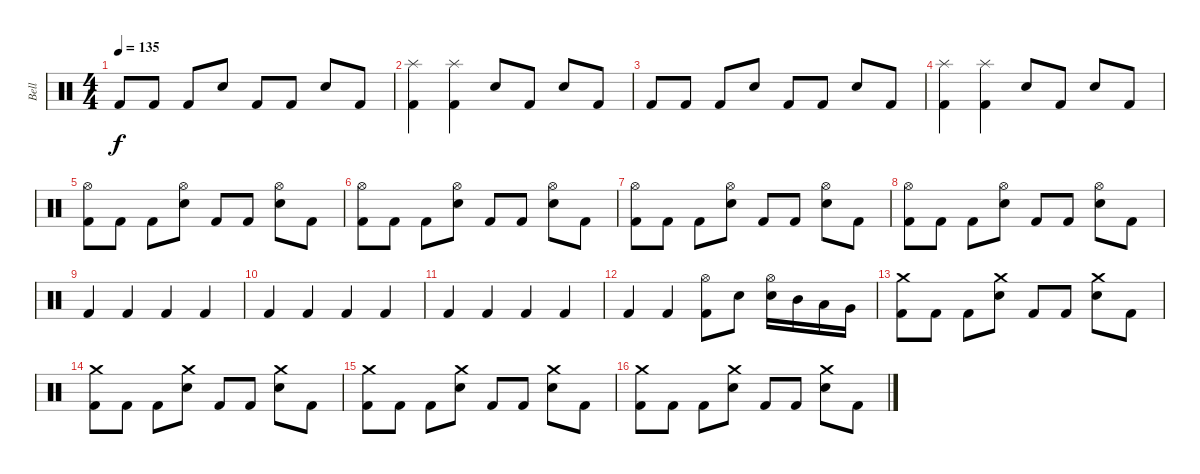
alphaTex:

\track ("Bell" "Bell") {instrument percussion}
\staff {score}
\articulation defaults
\ts (4 4)
\tempo 135
\clef neutral
\ks c "Kick (hit) 2".8{dy f} "Kick (hit) 2".8 "Kick (hit) 2".8 "Snare (hit) 2".8 "Kick (hit) 2".8 "Kick (hit) 2".8 "Snare (hit) 2".8 "Kick (hit) 2".8
|
("Splash (hit)" "Kick (hit) 2").4 ("Splash (hit)" "Kick (hit) 2").4 "Snare (hit) 2".8 "Kick (hit) 2".8 "Snare (hit) 2".8 "Kick (hit) 2".8 |
"Kick (hit) 2".8 "Kick (hit) 2".8 "Kick (hit) 2".8 "Snare (hit) 2".8 "Kick (hit) 2".8 "Kick (hit) 2".8 "Snare (hit) 2".8 "Kick (hit) 2".8 |
("Splash (hit)" "Kick (hit) 2").4 ("Splash (hit)" "Kick (hit) 2").4 "Snare (hit) 2".8 "Kick (hit) 2".8 "Snare (hit) 2".8 "Kick (hit) 2".8 |
("Hi-Hat (open)" "Kick (hit) 2").8 "Kick (hit) 2".8 "Kick (hit) 2".8 ("Hi-Hat (open)" "Snare (hit) 2").8 "Kick (hit) 2".8 "Kick (hit) 2".8 ("Hi-Hat (open)" "Snare (hit) 2").8 "Kick (hit) 2".8 |
("Hi-Hat (open)" "Kick (hit) 2").8 "Kick (hit) 2".8 "Kick (hit) 2".8 ("Hi-Hat (open)" "Snare (hit) 2").8 "Kick (hit) 2".8 "Kick (hit) 2".8 ("Hi-Hat (open)" "Snare (hit) 2").8 "Kick (hit) 2".8 |
("Hi-Hat (open)" "Kick (hit) 2").8 "Kick (hit) 2".8 "Kick (hit) 2".8 ("Hi-Hat (open)" "Snare (hit) 2").8 "Kick (hit) 2".8 "Kick (hit) 2".8 ("Hi-Hat (open)" "Snare (hit) 2").8 "Kick (hit) 2".8 |
("Hi-Hat (open)" "Kick (hit) 2").8 "Kick (hit) 2".8 "Kick (hit) 2".8 ("Hi-Hat (open)" "Snare (hit) 2").8 "Kick (hit) 2".8 "Kick (hit) 2".8 ("Hi-Hat (open)" "Snare (hit) 2").8 "Kick (hit) 2".8 |
"Kick (hit) 2".4 "Kick (hit) 2".4 "Kick (hit) 2".4 "Kick (hit) 2".4 |
"Kick (hit) 2".4 "Kick (hit) 2".4 "Kick (hit) 2".4 "Kick (hit) 2".4 |
"Kick (hit) 2".4 "Kick (hit) 2".4 "Kick (hit) 2".4 "Kick (hit) 2".4 |
"Kick (hit) 2".4 "Kick (hit) 2".4 ("Hi-Hat (open)" "Kick (hit) 2").8 "Snare (hit) 2".8 ("Hi-Hat (open)" "Snare (hit) 2").16 "Mid Tom (hit)".16 "Low Tom (hit)".16 "Very Low Tom (hit)".16 |
("Crash medium (hit)" "Kick (hit) 2").8 "Kick (hit) 2".8 "Kick (hit) 2".8 ("Crash medium (hit)" "Snare (hit) 2").8 "Kick (hit) 2".8 "Kick (hit) 2".8 ("Crash medium (hit)" "Snare (hit) 2").8 "Kick (hit) 2".8 |
("Crash medium (hit)" "Kick (hit) 2").8 "Kick (hit) 2".8 "Kick (hit) 2".8 ("Crash medium (hit)" "Snare (hit) 2").8 "Kick (hit) 2".8 "Kick (hit) 2".8 ("Crash medium (hit)" "Snare (hit) 2").8 "Kick (hit) 2".8 |
("Crash medium (hit)" "Kick (hit) 2").8 "Kick (hit) 2".8 "Kick (hit) 2".8 ("Crash medium (hit)" "Snare (hit) 2").8 "Kick (hit) 2".8 "Kick (hit) 2".8 ("Crash medium (hit)" "Snare (hit) 2").8 "Kick (hit) 2".8 |
("Crash medium (hit)" "Kick (hit) 2").8 "Kick (hit) 2".8 "Kick (hit) 2".8 ("Crash medium (hit)" "Snare (hit) 2").8 "Kick (hit) 2".8 "Kick (hit) 2".8 ("Crash medium (hit)" "Snare (hit) 2").8 "Kick (hit) 2".8
